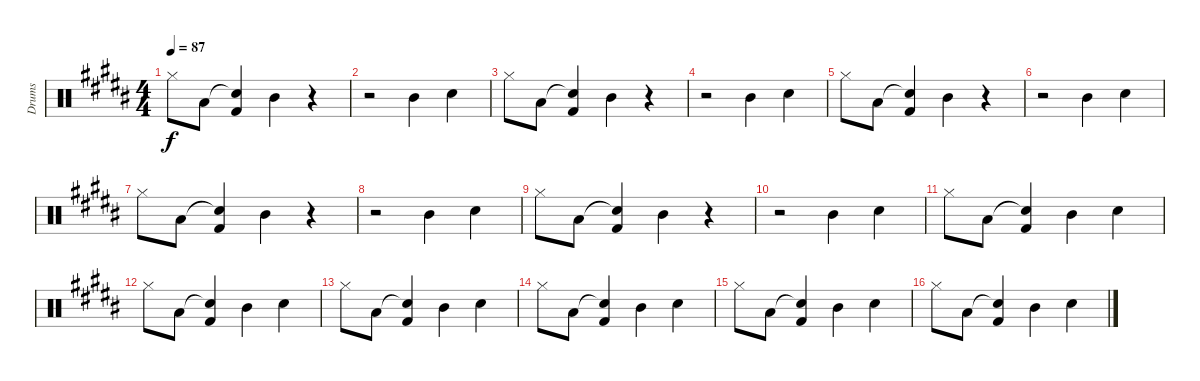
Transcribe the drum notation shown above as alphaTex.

\track ("Drums" "Drums") {instrument percussion}
\staff {score}
\articulation defaults
\ts (4 4)
\tempo 87
\clef neutral
\ks b "Hi-Hat (closed)".8{dy f} "Low Tom (hit)".8
("Snare (hit)"{t} "Kick (hit) 2").4 "Mid Tom (hit)".4 r.4 |
r.2 "Mid Tom (hit)".4 "Electric Snare (hit)".4 |
"Hi-Hat (closed)".8 "Low Tom (hit)".8 ("Snare (hit)"{t} "Kick (hit) 2").4 "Mid Tom (hit)".4 r.4 |
r.2 "Mid Tom (hit)".4 "Electric Snare (hit)".4 |
"Hi-Hat (closed)".8 "Low Tom (hit)".8 ("Snare (hit)"{t} "Kick (hit) 2").4 "Mid Tom (hit)".4 r.4 |
r.2 "Mid Tom (hit)".4 "Electric Snare (hit)".4 |
"Hi-Hat (closed)".8 "Low Tom (hit)".8 ("Snare (hit)"{t} "Kick (hit) 2").4 "Mid Tom (hit)".4 r.4 |
r.2 "Mid Tom (hit)".4 "Electric Snare (hit)".4 |
"Hi-Hat (closed)".8 "Low Tom (hit)".8 ("Snare (hit)"{t} "Kick (hit) 2").4 "Mid Tom (hit)".4 r.4 |
r.2 "Mid Tom (hit)".4 "Electric Snare (hit)".4 |
"Hi-Hat (closed)".8 "Low Tom (hit)".8 ("Snare (hit)"{t} "Kick (hit) 2").4 "Mid Tom (hit)".4 "Electric Snare (hit)".4 |
"Hi-Hat (closed)".8 "Low Tom (hit)".8 ("Snare (hit)"{t} "Kick (hit) 2").4 "Mid Tom (hit)".4 "Electric Snare (hit)".4 |
"Hi-Hat (closed)".8 "Low Tom (hit)".8 ("Snare (hit)"{t} "Kick (hit) 2").4 "Mid Tom (hit)".4 "Electric Snare (hit)".4 |
"Hi-Hat (closed)".8 "Low Tom (hit)".8 ("Snare (hit)"{t} "Kick (hit) 2").4 "Mid Tom (hit)".4 "Electric Snare (hit)".4 |
"Hi-Hat (closed)".8 "Low Tom (hit)".8 ("Snare (hit)"{t} "Kick (hit) 2").4 "Mid Tom (hit)".4 "Electric Snare (hit)".4 |
"Hi-Hat (closed)".8 "Low Tom (hit)".8 ("Snare (hit)"{t} "Kick (hit) 2").4 "Mid Tom (hit)".4 "Electric Snare (hit)".4
